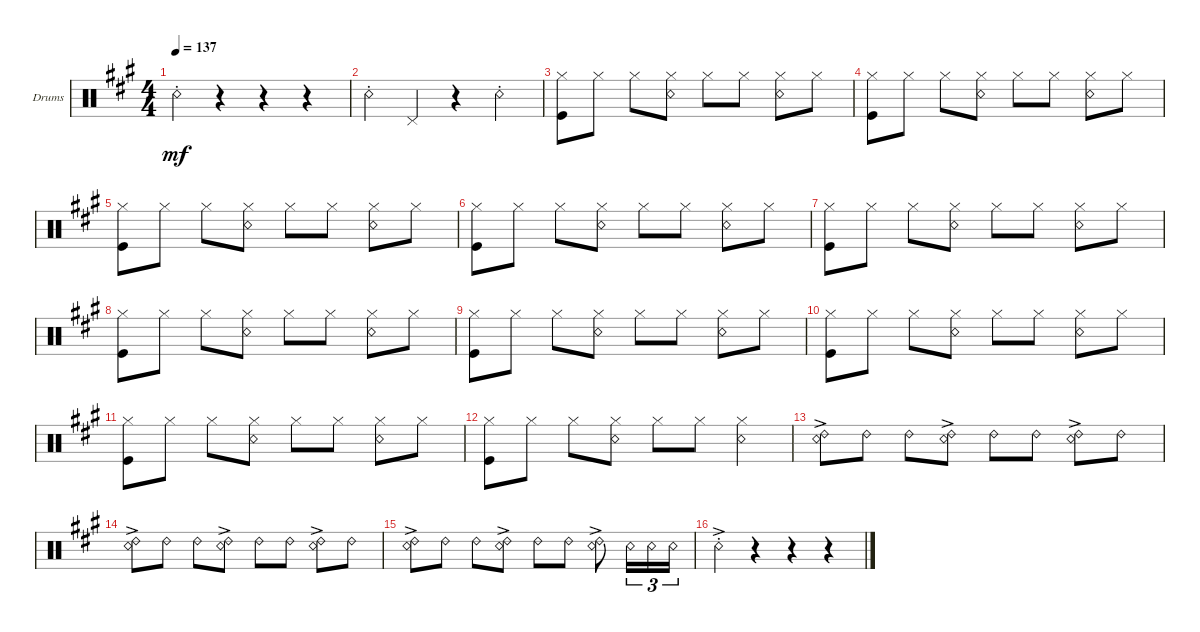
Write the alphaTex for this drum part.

\defaultSystemsLayout 4
\bracketExtendMode groupsimilarinstruments
\firstSystemTrackNameOrientation horizontal
\otherSystemsTrackNameOrientation horizontal
\track ("Drums" "Drums") {instrument percussion}
\staff {score}
\articulation defaults
\ts (4 4)
\tempo 137
\clef neutral
\scale
0.333333
\ks a "Snare (rim shot)"{st}.4{dy mf}
r.4 r.4 r.4 |
\scale
0.333333 "Snare (rim shot)"{st}.4 "Pedal Hi-Hat (hit)".4 r.4 "Snare (rim shot)"{st}.4 |
\scale
0.333333 ("Hi-Hat (closed)" "Kick (hit)").8 "Hi-Hat (closed)".8 "Hi-Hat (closed)".8 ("Hi-Hat (closed)" "Snare (rim shot)").8 "Hi-Hat (closed)".8 "Hi-Hat (closed)".8 ("Hi-Hat (closed)" "Snare (rim shot)").8 "Hi-Hat (closed)".8 |
\scale
0.333333 ("Hi-Hat (closed)" "Kick (hit)").8 "Hi-Hat (closed)".8 "Hi-Hat (closed)".8 ("Hi-Hat (closed)" "Snare (rim shot)").8 "Hi-Hat (closed)".8 "Hi-Hat (closed)".8 ("Hi-Hat (closed)" "Snare (rim shot)").8 "Hi-Hat (closed)".8 |
\scale
0.333333 ("Hi-Hat (closed)" "Kick (hit)").8 "Hi-Hat (closed)".8 "Hi-Hat (closed)".8 ("Hi-Hat (closed)" "Snare (rim shot)").8 "Hi-Hat (closed)".8 "Hi-Hat (closed)".8 ("Hi-Hat (closed)" "Snare (rim shot)").8 "Hi-Hat (closed)".8 |
\scale
0.333333 ("Hi-Hat (closed)" "Kick (hit)").8 "Hi-Hat (closed)".8 "Hi-Hat (closed)".8 ("Hi-Hat (closed)" "Snare (rim shot)").8 "Hi-Hat (closed)".8 "Hi-Hat (closed)".8 ("Hi-Hat (closed)" "Snare (rim shot)").8 "Hi-Hat (closed)".8 |
\scale
0.333333 ("Hi-Hat (closed)" "Kick (hit)").8 "Hi-Hat (closed)".8 "Hi-Hat (closed)".8 ("Hi-Hat (closed)" "Snare (rim shot)").8 "Hi-Hat (closed)".8 "Hi-Hat (closed)".8 ("Hi-Hat (closed)" "Snare (rim shot)").8 "Hi-Hat (closed)".8 |
\scale
0.333333 ("Hi-Hat (closed)" "Kick (hit)").8 "Hi-Hat (closed)".8 "Hi-Hat (closed)".8 ("Hi-Hat (closed)" "Snare (rim shot)").8 "Hi-Hat (closed)".8 "Hi-Hat (closed)".8 ("Hi-Hat (closed)" "Snare (rim shot)").8 "Hi-Hat (closed)".8 |
\scale
0.333333 ("Hi-Hat (closed)" "Kick (hit)").8 "Hi-Hat (closed)".8 "Hi-Hat (closed)".8 ("Hi-Hat (closed)" "Snare (rim shot)").8 "Hi-Hat (closed)".8 "Hi-Hat (closed)".8 ("Hi-Hat (closed)" "Snare (rim shot)").8 "Hi-Hat (closed)".8 |
\scale
0.333333 ("Hi-Hat (closed)" "Kick (hit)").8 "Hi-Hat (closed)".8 "Hi-Hat (closed)".8 ("Hi-Hat (closed)" "Snare (rim shot)").8 "Hi-Hat (closed)".8 "Hi-Hat (closed)".8 ("Hi-Hat (closed)" "Snare (rim shot)").8 "Hi-Hat (closed)".8 |
\scale
0.333333 ("Hi-Hat (closed)" "Kick (hit)").8 "Hi-Hat (closed)".8 "Hi-Hat (closed)".8 ("Hi-Hat (closed)" "Snare (rim shot)").8 "Hi-Hat (closed)".8 "Hi-Hat (closed)".8 ("Hi-Hat (closed)" "Snare (rim shot)").8 "Hi-Hat (closed)".8 |
\scale
0.333333 ("Hi-Hat (closed)" "Kick (hit)").8 "Hi-Hat (closed)".8 "Hi-Hat (closed)".8 ("Hi-Hat (closed)" "Snare (rim shot)").8 "Hi-Hat (closed)".8 "Hi-Hat (closed)".8 ("Hi-Hat (closed)" "Snare (rim shot)").4 |
\scale
0.333333 ("Ride (bell) 2"{ac} "Snare (rim shot)").8 "Ride (bell) 2".8 "Ride (bell) 2".8 ("Ride (bell) 2"{ac} "Snare (rim shot)").8 "Ride (bell) 2".8 "Ride (bell) 2".8 ("Ride (bell) 2"{ac} "Snare (rim shot)").8 "Ride (bell) 2".8 |
\scale
0.333333 ("Ride (bell) 2"{ac} "Snare (rim shot)").8 "Ride (bell) 2".8 "Ride (bell) 2".8 ("Ride (bell) 2"{ac} "Snare (rim shot)").8 "Ride (bell) 2".8 "Ride (bell) 2".8 ("Ride (bell) 2"{ac} "Snare (rim shot)").8 "Ride (bell) 2".8 |
\scale
0.333333 ("Ride (bell) 2"{ac} "Snare (rim shot)").8 "Ride (bell) 2".8 "Ride (bell) 2".8 ("Ride (bell) 2"{ac} "Snare (rim shot)").8 "Ride (bell) 2".8 "Ride (bell) 2".8 ("Ride (bell) 2"{ac} "Snare (rim shot)").8 "Snare (rim shot)".16{tu (3 2)} "Snare (rim shot)".16{tu (3 2)} "Snare (rim shot)".16{tu (3 2)} |
"Snare (rim shot)"{ac st}.4 r.4 r.4 r.4
